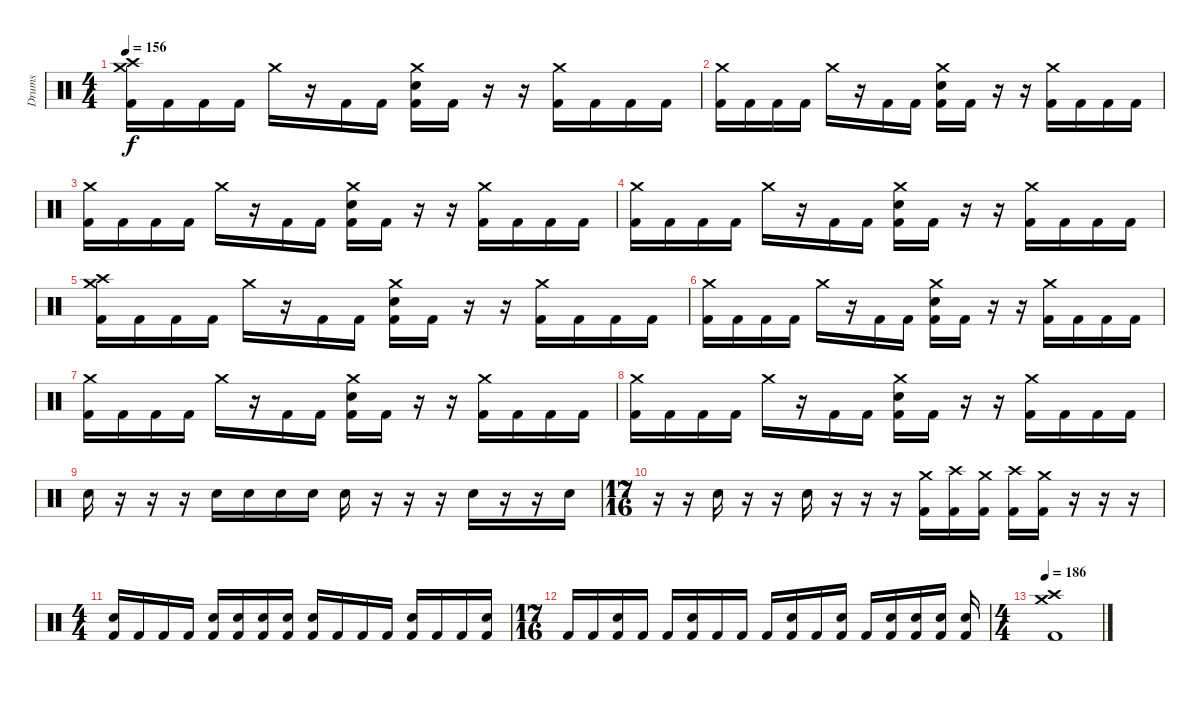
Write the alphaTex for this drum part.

\track ("Drums" "Drums") {instrument percussion}
\staff {score}
\articulation defaults
\ts (4 4)
\tempo 156
\clef neutral
\ks c
("Crash high (hit)" "Crash medium (hit)" "Kick (hit) 2").16{dy f} "Kick (hit) 2".16 "Kick (hit) 2".16 "Kick (hit) 2".16 "Crash medium (hit)".16 r.16 "Kick (hit) 2".16 "Kick (hit) 2".16 ("Crash medium (hit)" "Snare (hit) 2" "Kick (hit) 2").16 "Kick (hit) 2".16 r.16 r.16 ("Crash medium (hit)" "Kick (hit) 2").16 "Kick (hit) 2".16 "Kick (hit) 2".16 "Kick (hit) 2".16 |
("Crash medium (hit)" "Kick (hit) 2").16 "Kick (hit) 2".16 "Kick (hit) 2".16 "Kick (hit) 2".16 "Crash medium (hit)".16 r.16 "Kick (hit) 2".16 "Kick (hit) 2".16 ("Crash medium (hit)" "Snare (hit) 2" "Kick (hit) 2").16 "Kick (hit) 2".16 r.16 r.16 ("Crash medium (hit)" "Kick (hit) 2").16 "Kick (hit) 2".16 "Kick (hit) 2".16 "Kick (hit) 2".16 |
("Crash medium (hit)" "Kick (hit) 2").16 "Kick (hit) 2".16 "Kick (hit) 2".16 "Kick (hit) 2".16 "Crash medium (hit)".16 r.16 "Kick (hit) 2".16 "Kick (hit) 2".16 ("Crash medium (hit)" "Snare (hit) 2" "Kick (hit) 2").16 "Kick (hit) 2".16 r.16 r.16 ("Crash medium (hit)" "Kick (hit) 2").16 "Kick (hit) 2".16 "Kick (hit) 2".16 "Kick (hit) 2".16 |
("Crash medium (hit)" "Kick (hit) 2").16 "Kick (hit) 2".16 "Kick (hit) 2".16 "Kick (hit) 2".16 "Crash medium (hit)".16 r.16 "Kick (hit) 2".16 "Kick (hit) 2".16 ("Crash medium (hit)" "Snare (hit) 2" "Kick (hit) 2").16 "Kick (hit) 2".16 r.16 r.16 ("Crash medium (hit)" "Kick (hit) 2").16 "Kick (hit) 2".16 "Kick (hit) 2".16 "Kick (hit) 2".16 |
("Crash high (hit)" "Crash medium (hit)" "Kick (hit) 2").16 "Kick (hit) 2".16 "Kick (hit) 2".16 "Kick (hit) 2".16 "Crash medium (hit)".16 r.16 "Kick (hit) 2".16 "Kick (hit) 2".16 ("Crash medium (hit)" "Snare (hit) 2" "Kick (hit) 2").16 "Kick (hit) 2".16 r.16 r.16 ("Crash medium (hit)" "Kick (hit) 2").16 "Kick (hit) 2".16 "Kick (hit) 2".16 "Kick (hit) 2".16 |
("Crash medium (hit)" "Kick (hit) 2").16 "Kick (hit) 2".16 "Kick (hit) 2".16 "Kick (hit) 2".16 "Crash medium (hit)".16 r.16 "Kick (hit) 2".16 "Kick (hit) 2".16 ("Crash medium (hit)" "Snare (hit) 2" "Kick (hit) 2").16 "Kick (hit) 2".16 r.16 r.16 ("Crash medium (hit)" "Kick (hit) 2").16 "Kick (hit) 2".16 "Kick (hit) 2".16 "Kick (hit) 2".16 |
("Crash medium (hit)" "Kick (hit) 2").16 "Kick (hit) 2".16 "Kick (hit) 2".16 "Kick (hit) 2".16 "Crash medium (hit)".16 r.16 "Kick (hit) 2".16 "Kick (hit) 2".16 ("Crash medium (hit)" "Snare (hit) 2" "Kick (hit) 2").16 "Kick (hit) 2".16 r.16 r.16 ("Crash medium (hit)" "Kick (hit) 2").16 "Kick (hit) 2".16 "Kick (hit) 2".16 "Kick (hit) 2".16 |
("Crash medium (hit)" "Kick (hit) 2").16 "Kick (hit) 2".16 "Kick (hit) 2".16 "Kick (hit) 2".16 "Crash medium (hit)".16 r.16 "Kick (hit) 2".16 "Kick (hit) 2".16 ("Crash medium (hit)" "Snare (hit) 2" "Kick (hit) 2").16 "Kick (hit) 2".16 r.16 r.16 ("Crash medium (hit)" "Kick (hit) 2").16 "Kick (hit) 2".16 "Kick (hit) 2".16 "Kick (hit) 2".16 |
"Snare (hit) 2".16 r.16 r.16 r.16 "Snare (hit) 2".16 "Snare (hit) 2".16 "Snare (hit) 2".16 "Snare (hit) 2".16 "Snare (hit) 2".16 r.16 r.16 r.16 "Snare (hit) 2".16 r.16 r.16 "Snare (hit) 2".16 |
\ts (17 16)
r.16 r.16 "Snare (hit) 2".16 r.16 r.16 "Snare (hit) 2".16 r.16 r.16 r.16 ("Crash medium (hit)" "Kick (hit) 2").16 ("Crash high (hit)" "Kick (hit) 2").16 ("Crash medium (hit)" "Kick (hit) 2").16 ("Crash high (hit)" "Kick (hit) 2").16 ("Crash medium (hit)" "Kick (hit) 2").16 r.16 r.16 r.16 |
\ts (4 4)
("Snare (hit) 2" "Kick (hit) 2").16 "Kick (hit) 2".16 "Kick (hit) 2".16 "Kick (hit) 2".16 ("Snare (hit) 2" "Kick (hit) 2").16 ("Snare (hit) 2" "Kick (hit) 2").16 ("Snare (hit) 2" "Kick (hit) 2").16 ("Snare (hit) 2" "Kick (hit) 2").16 ("Snare (hit) 2" "Kick (hit) 2").16 "Kick (hit) 2".16 "Kick (hit) 2".16 "Kick (hit) 2".16 ("Snare (hit) 2" "Kick (hit) 2").16 "Kick (hit) 2".16 "Kick (hit) 2".16 ("Snare (hit) 2" "Kick (hit) 2").16 |
\ts (17 16)
"Kick (hit) 2".16 "Kick (hit) 2".16 ("Snare (hit) 2" "Kick (hit) 2").16 "Kick (hit) 2".16 "Kick (hit) 2".16 ("Snare (hit) 2" "Kick (hit) 2").16 "Kick (hit) 2".16 "Kick (hit) 2".16 "Kick (hit) 2".16 ("Snare (hit) 2" "Kick (hit) 2").16 "Kick (hit) 2".16 ("Snare (hit) 2" "Kick (hit) 2").16 "Kick (hit) 2".16 ("Snare (hit) 2" "Kick (hit) 2").16 ("Snare (hit) 2" "Kick (hit) 2").16 ("Snare (hit) 2" "Kick (hit) 2").16 ("Snare (hit) 2" "Kick (hit) 2").16 |
\ts (4 4)
\tempo 186
("Crash high (hit)" "Crash medium (hit)" "Kick (hit) 2").1
